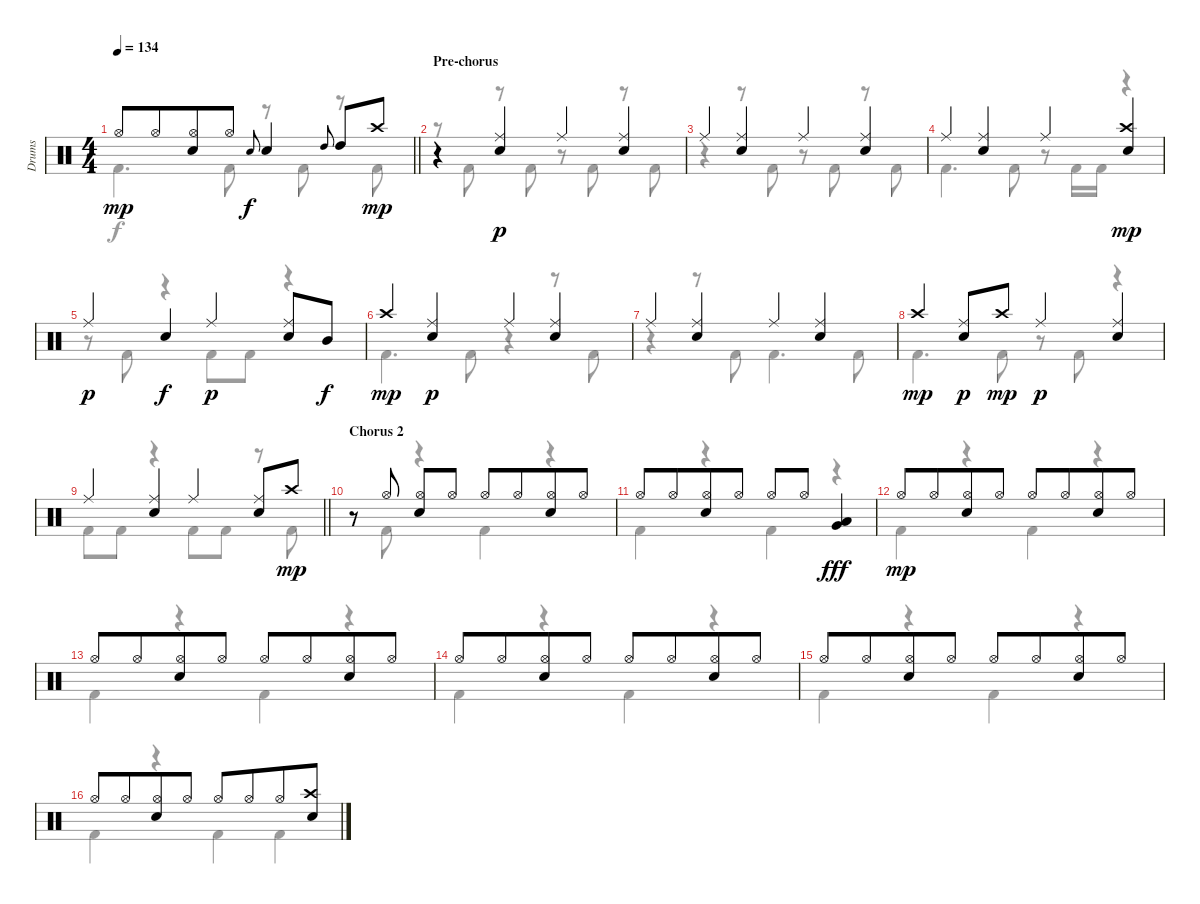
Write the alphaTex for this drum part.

\track ("Drums" "Drums") {instrument percussion}
\staff {score}
\articulation defaults
\voice
\ts (4 4)
\tempo 134
\clef neutral
\barLineRight lightlight
\ks c "Hi-Hat (open)".8{dy mp} "Hi-Hat (open)".8{beam merge}
("Hi-Hat (open)" "Electric Snare (hit)").8 "Hi-Hat (open)".8 "Electric Snare (hit)".8{gr onbeat dy f} "Electric Snare (hit)".4 "High Tom (hit)".8{gr onbeat} "High Tom (hit)".8 "Crash high (hit)".8{dy mp} |
\section ("" "Pre-chorus")
r.4 ("Electric Snare (hit)" "Ride (middle)").4{dy p} "Ride (middle)".4 ("Electric Snare (hit)" "Ride (middle)").4 |
"Ride (middle)".4 ("Electric Snare (hit)" "Ride (middle)").4 "Ride (middle)".4 ("Electric Snare (hit)" "Ride (middle)").4 |
"Ride (middle)".4 ("Electric Snare (hit)" "Ride (middle)").4 "Ride (middle)".4 ("Electric Snare (hit)" "Crash high (hit)").4{dy mp} |
"Ride (middle)".4{dy p} "Electric Snare (hit)".4{dy f} "Ride (middle)".4{dy p} ("Electric Snare (hit)" "Ride (middle)").8 "Mid Tom (hit)".8{dy f} |
"Crash high (hit)".4{dy mp} ("Electric Snare (hit)" "Ride (middle)").4{dy p} "Ride (middle)".4 ("Electric Snare (hit)" "Ride (middle)").4 |
"Ride (middle)".4 ("Electric Snare (hit)" "Ride (middle)").4 "Ride (middle)".4 ("Electric Snare (hit)" "Ride (middle)").4 |
"Crash high (hit)".4{dy mp} ("Electric Snare (hit)" "Ride (middle)").8{dy p} "Crash high (hit)".8{dy mp} "Ride (middle)".4{dy p} ("Electric Snare (hit)" "Ride (middle)").4 |
\barLineRight lightlight "Ride (middle)".4
("Electric Snare (hit)" "Ride (middle)").4 "Ride (middle)".4 ("Electric Snare (hit)" "Ride (middle)").8 "Crash high (hit)".8{dy mp} |
\section ("" "Chorus 2")
r.8 "Hi-Hat (open)".8 ("Hi-Hat (open)" "Electric Snare (hit)").8 "Hi-Hat (open)".8 "Hi-Hat (open)".8 "Hi-Hat (open)".8{beam merge} ("Hi-Hat (open)" "Electric Snare (hit)").8 "Hi-Hat (open)".8 |
"Hi-Hat (open)".8 "Hi-Hat (open)".8{beam merge} ("Hi-Hat (open)" "Electric Snare (hit)").8 "Hi-Hat (open)".8 "Hi-Hat (open)".8 "Hi-Hat (open)".8 ("Very Low Tom (hit)" "Low Tom (hit)").4{dy fff} |
"Hi-Hat (open)".8{dy mp} "Hi-Hat (open)".8{beam merge} ("Hi-Hat (open)" "Electric Snare (hit)").8 "Hi-Hat (open)".8 "Hi-Hat (open)".8 "Hi-Hat (open)".8{beam merge} ("Hi-Hat (open)" "Electric Snare (hit)").8 "Hi-Hat (open)".8 |
"Hi-Hat (open)".8 "Hi-Hat (open)".8{beam merge} ("Hi-Hat (open)" "Electric Snare (hit)").8 "Hi-Hat (open)".8 "Hi-Hat (open)".8 "Hi-Hat (open)".8{beam merge} ("Hi-Hat (open)" "Electric Snare (hit)").8 "Hi-Hat (open)".8 |
"Hi-Hat (open)".8 "Hi-Hat (open)".8{beam merge} ("Hi-Hat (open)" "Electric Snare (hit)").8 "Hi-Hat (open)".8 "Hi-Hat (open)".8 "Hi-Hat (open)".8{beam merge} ("Hi-Hat (open)" "Electric Snare (hit)").8 "Hi-Hat (open)".8 |
"Hi-Hat (open)".8 "Hi-Hat (open)".8{beam merge} ("Hi-Hat (open)" "Electric Snare (hit)").8 "Hi-Hat (open)".8 "Hi-Hat (open)".8 "Hi-Hat (open)".8{beam merge} ("Hi-Hat (open)" "Electric Snare (hit)").8 "Hi-Hat (open)".8 |
"Hi-Hat (open)".8 "Hi-Hat (open)".8{beam merge} ("Hi-Hat (open)" "Electric Snare (hit)").8 "Hi-Hat (open)".8 "Hi-Hat (open)".8 "Hi-Hat (open)".8{beam merge} "Hi-Hat (open)".8 ("Crash high (hit)" "Electric Snare (hit)").8
\voice
\clef neutral
\ottava regular
\simile none
\barLineRight lightlight
\ks c "Kick (hit) 2".4{d dy f} "Kick (hit) 2".8
r.8 "Kick (hit) 2".8 r.8 "Kick (hit) 2".8 |
r.8 "Kick (hit) 2".8 r.8 "Kick (hit) 2".8 r.8 "Kick (hit) 2".8 r.8 "Kick (hit) 2".8 |
r.4 r.8 "Kick (hit) 2".8 r.8 "Kick (hit) 2".8 r.8 "Kick (hit) 2".8 |
"Kick (hit) 2".4{d} "Kick (hit) 2".8 r.8 "Kick (hit) 2".16 "Kick (hit) 2".16 r.4 |
r.8 "Kick (hit) 2".8 r.4 "Kick (hit) 2".8 "Kick (hit) 2".8 r.4 |
"Kick (hit) 2".4{d} "Kick (hit) 2".8 r.4 r.8 "Kick (hit) 2".8 |
r.4 r.8 "Kick (hit) 2".8 "Kick (hit) 2".4{d} "Kick (hit) 2".8 |
"Kick (hit) 2".4{d} "Kick (hit) 2".8 r.8 "Kick (hit) 2".8 r.4 |
\barLineRight lightlight "Kick (hit) 2".8 "Kick (hit) 2".8
r.4 "Kick (hit) 2".8 "Kick (hit) 2".8 r.8 "Kick (hit) 2".8 |
r.8 "Kick (hit) 2".8 r.4 "Kick (hit) 2".4 r.4 |
"Kick (hit) 2".4 r.4 "Kick (hit) 2".4 r.4 |
"Kick (hit) 2".4 r.4 "Kick (hit) 2".4 r.4 |
"Kick (hit) 2".4 r.4 "Kick (hit) 2".4 r.4 |
"Kick (hit) 2".4 r.4 "Kick (hit) 2".4 r.4 |
"Kick (hit) 2".4 r.4 "Kick (hit) 2".4 r.4 |
"Kick (hit) 2".4 r.4 "Kick (hit) 2".4 "Kick (hit) 2".4
